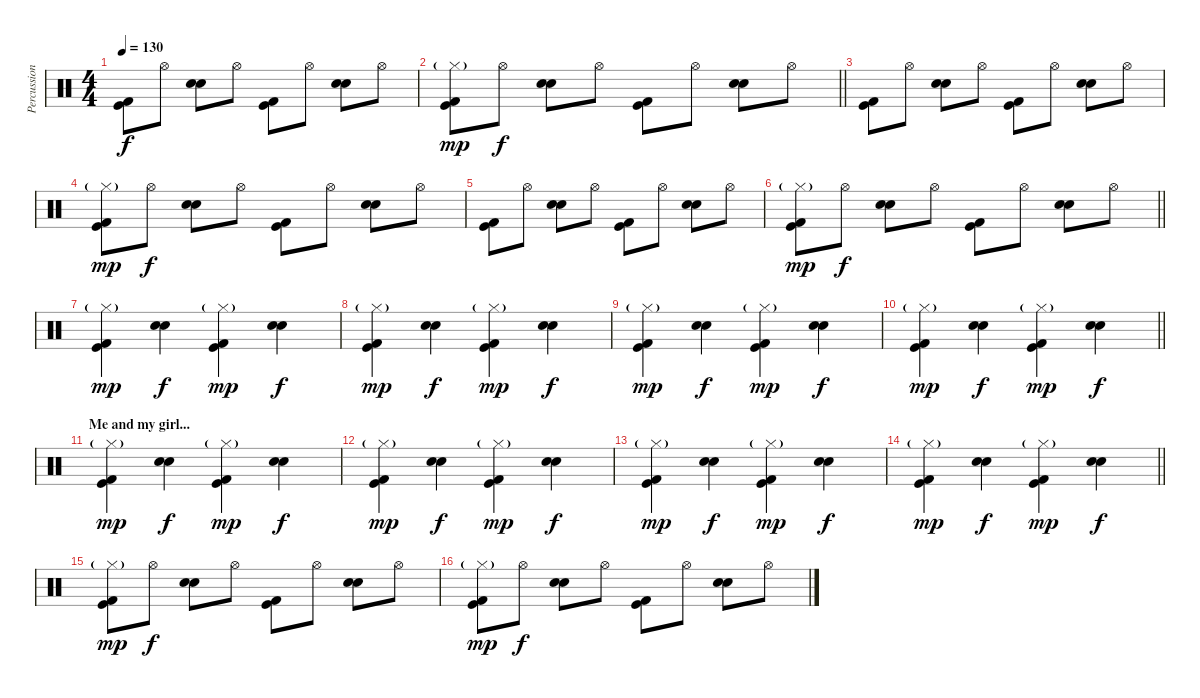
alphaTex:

\track ("Percussion" "Percussion") {instrument percussion}
\staff {score}
\articulation defaults
\ts (4 4)
\tempo 130
\clef neutral
\ks c
("Kick (hit) 2" "Kick (hit)").8{dy f} "Hi-Hat (open)".8 ("Electric Snare (hit)" "Snare (hit) 2").8 "Hi-Hat (open)".8 ("Kick (hit) 2" "Kick (hit)").8 "Hi-Hat (open)".8 ("Electric Snare (hit)" "Snare (hit) 2").8 "Hi-Hat (open)".8 |
\barLineRight lightlight
("Kick (hit) 2" "Kick (hit)" "Hi-Hat (closed)"{g}).8{dy mp} "Hi-Hat (open)".8{dy f} ("Electric Snare (hit)" "Snare (hit) 2").8 "Hi-Hat (open)".8 ("Kick (hit) 2" "Kick (hit)").8 "Hi-Hat (open)".8 ("Electric Snare (hit)" "Snare (hit) 2").8 "Hi-Hat (open)".8 |
("Kick (hit) 2" "Kick (hit)").8 "Hi-Hat (open)".8 ("Electric Snare (hit)" "Snare (hit) 2").8 "Hi-Hat (open)".8 ("Kick (hit) 2" "Kick (hit)").8 "Hi-Hat (open)".8 ("Electric Snare (hit)" "Snare (hit) 2").8 "Hi-Hat (open)".8 |
("Kick (hit) 2" "Kick (hit)" "Hi-Hat (closed)"{g}).8{dy mp} "Hi-Hat (open)".8{dy f} ("Electric Snare (hit)" "Snare (hit) 2").8 "Hi-Hat (open)".8 ("Kick (hit) 2" "Kick (hit)").8 "Hi-Hat (open)".8 ("Electric Snare (hit)" "Snare (hit) 2").8 "Hi-Hat (open)".8 |
("Kick (hit) 2" "Kick (hit)").8 "Hi-Hat (open)".8 ("Electric Snare (hit)" "Snare (hit) 2").8 "Hi-Hat (open)".8 ("Kick (hit) 2" "Kick (hit)").8 "Hi-Hat (open)".8 ("Electric Snare (hit)" "Snare (hit) 2").8 "Hi-Hat (open)".8 |
\barLineRight lightlight
("Kick (hit) 2" "Kick (hit)" "Hi-Hat (closed)"{g}).8{dy mp} "Hi-Hat (open)".8{dy f} ("Electric Snare (hit)" "Snare (hit) 2").8 "Hi-Hat (open)".8 ("Kick (hit) 2" "Kick (hit)").8 "Hi-Hat (open)".8 ("Electric Snare (hit)" "Snare (hit) 2").8 "Hi-Hat (open)".8 |
("Kick (hit) 2" "Kick (hit)" "Hi-Hat (closed)"{g}).4{dy mp} ("Electric Snare (hit)" "Snare (hit) 2").4{dy f} ("Kick (hit) 2" "Kick (hit)" "Hi-Hat (closed)"{g}).4{dy mp} ("Electric Snare (hit)" "Snare (hit) 2").4{dy f} |
("Kick (hit) 2" "Kick (hit)" "Hi-Hat (closed)"{g}).4{dy mp} ("Electric Snare (hit)" "Snare (hit) 2").4{dy f} ("Kick (hit) 2" "Kick (hit)" "Hi-Hat (closed)"{g}).4{dy mp} ("Electric Snare (hit)" "Snare (hit) 2").4{dy f} |
("Kick (hit) 2" "Kick (hit)" "Hi-Hat (closed)"{g}).4{dy mp} ("Electric Snare (hit)" "Snare (hit) 2").4{dy f} ("Kick (hit) 2" "Kick (hit)" "Hi-Hat (closed)"{g}).4{dy mp} ("Electric Snare (hit)" "Snare (hit) 2").4{dy f} |
\barLineRight lightlight
("Kick (hit) 2" "Kick (hit)" "Hi-Hat (closed)"{g}).4{dy mp} ("Electric Snare (hit)" "Snare (hit) 2").4{dy f} ("Kick (hit) 2" "Kick (hit)" "Hi-Hat (closed)"{g}).4{dy mp} ("Electric Snare (hit)" "Snare (hit) 2").4{dy f} |
\section ("" "Me and my girl...")
("Kick (hit) 2" "Kick (hit)" "Hi-Hat (closed)"{g}).4{dy mp} ("Electric Snare (hit)" "Snare (hit) 2").4{dy f} ("Kick (hit) 2" "Kick (hit)" "Hi-Hat (closed)"{g}).4{dy mp} ("Electric Snare (hit)" "Snare (hit) 2").4{dy f} |
("Kick (hit) 2" "Kick (hit)" "Hi-Hat (closed)"{g}).4{dy mp} ("Electric Snare (hit)" "Snare (hit) 2").4{dy f} ("Kick (hit) 2" "Kick (hit)" "Hi-Hat (closed)"{g}).4{dy mp} ("Electric Snare (hit)" "Snare (hit) 2").4{dy f} |
("Kick (hit) 2" "Kick (hit)" "Hi-Hat (closed)"{g}).4{dy mp} ("Electric Snare (hit)" "Snare (hit) 2").4{dy f} ("Kick (hit) 2" "Kick (hit)" "Hi-Hat (closed)"{g}).4{dy mp} ("Electric Snare (hit)" "Snare (hit) 2").4{dy f} |
\barLineRight lightlight
("Kick (hit) 2" "Kick (hit)" "Hi-Hat (closed)"{g}).4{dy mp} ("Electric Snare (hit)" "Snare (hit) 2").4{dy f} ("Kick (hit) 2" "Kick (hit)" "Hi-Hat (closed)"{g}).4{dy mp} ("Electric Snare (hit)" "Snare (hit) 2").4{dy f} |
("Kick (hit) 2" "Kick (hit)" "Hi-Hat (closed)"{g}).8{dy mp} "Hi-Hat (open)".8{dy f} ("Electric Snare (hit)" "Snare (hit) 2").8 "Hi-Hat (open)".8 ("Kick (hit) 2" "Kick (hit)").8 "Hi-Hat (open)".8 ("Electric Snare (hit)" "Snare (hit) 2").8 "Hi-Hat (open)".8 |
("Kick (hit) 2" "Kick (hit)" "Hi-Hat (closed)"{g}).8{dy mp} "Hi-Hat (open)".8{dy f} ("Electric Snare (hit)" "Snare (hit) 2").8 "Hi-Hat (open)".8 ("Kick (hit) 2" "Kick (hit)").8 "Hi-Hat (open)".8 ("Electric Snare (hit)" "Snare (hit) 2").8 "Hi-Hat (open)".8
